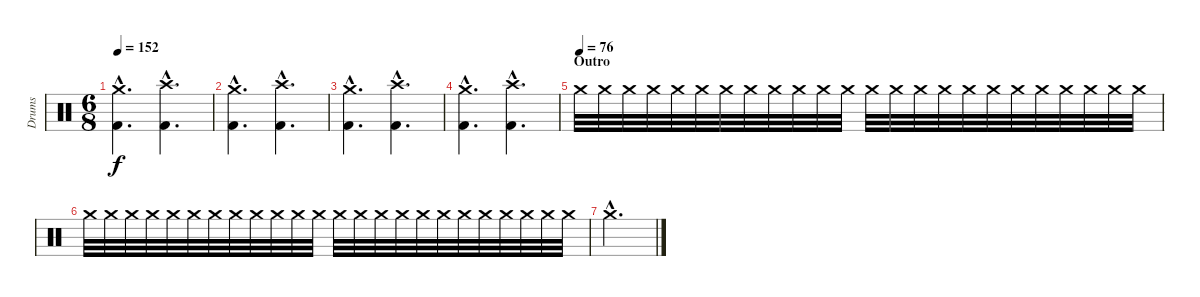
\track ("Drums" "Drums") {instrument percussion}
\staff {score}
\articulation defaults
\ts (6 8)
\tempo 152
\clef neutral
\ks c
("Crash medium (hit)"{hac} "Kick (hit) 2"{hac}).4{d dy f} ("Crash high (hit)"{hac} "Kick (hit) 2"{hac}).4{d} |
("Crash medium (hit)"{hac} "Kick (hit) 2"{hac}).4{d} ("Crash high (hit)"{hac} "Kick (hit) 2"{hac}).4{d} |
("Crash medium (hit)"{hac} "Kick (hit) 2"{hac}).4{d} ("Crash high (hit)"{hac} "Kick (hit) 2"{hac}).4{d} |
("Crash medium (hit)"{hac} "Kick (hit) 2"{hac}).4{d} ("Crash high (hit)"{hac} "Kick (hit) 2"{hac}).4{d} |
\section ("" "Outro")
\tempo (76)
"Crash medium (hit)".32 "Crash medium (hit)".32 "Crash medium (hit)".32 "Crash medium (hit)".32 "Crash medium (hit)".32 "Crash medium (hit)".32 "Crash medium (hit)".32 "Crash medium (hit)".32 "Crash medium (hit)".32 "Crash medium (hit)".32 "Crash medium (hit)".32 "Crash medium (hit)".32 "Crash medium (hit)".32 "Crash medium (hit)".32 "Crash medium (hit)".32 "Crash medium (hit)".32 "Crash medium (hit)".32 "Crash medium (hit)".32 "Crash medium (hit)".32 "Crash medium (hit)".32 "Crash medium (hit)".32 "Crash medium (hit)".32 "Crash medium (hit)".32 "Crash medium (hit)".32 |
"Crash medium (hit)".32 "Crash medium (hit)".32 "Crash medium (hit)".32 "Crash medium (hit)".32 "Crash medium (hit)".32 "Crash medium (hit)".32 "Crash medium (hit)".32 "Crash medium (hit)".32 "Crash medium (hit)".32 "Crash medium (hit)".32 "Crash medium (hit)".32 "Crash medium (hit)".32 "Crash medium (hit)".32 "Crash medium (hit)".32 "Crash medium (hit)".32 "Crash medium (hit)".32 "Crash medium (hit)".32 "Crash medium (hit)".32 "Crash medium (hit)".32 "Crash medium (hit)".32 "Crash medium (hit)".32 "Crash medium (hit)".32 "Crash medium (hit)".32 "Crash medium (hit)".32 |
"Crash medium (hit)"{hac}.2{d}
